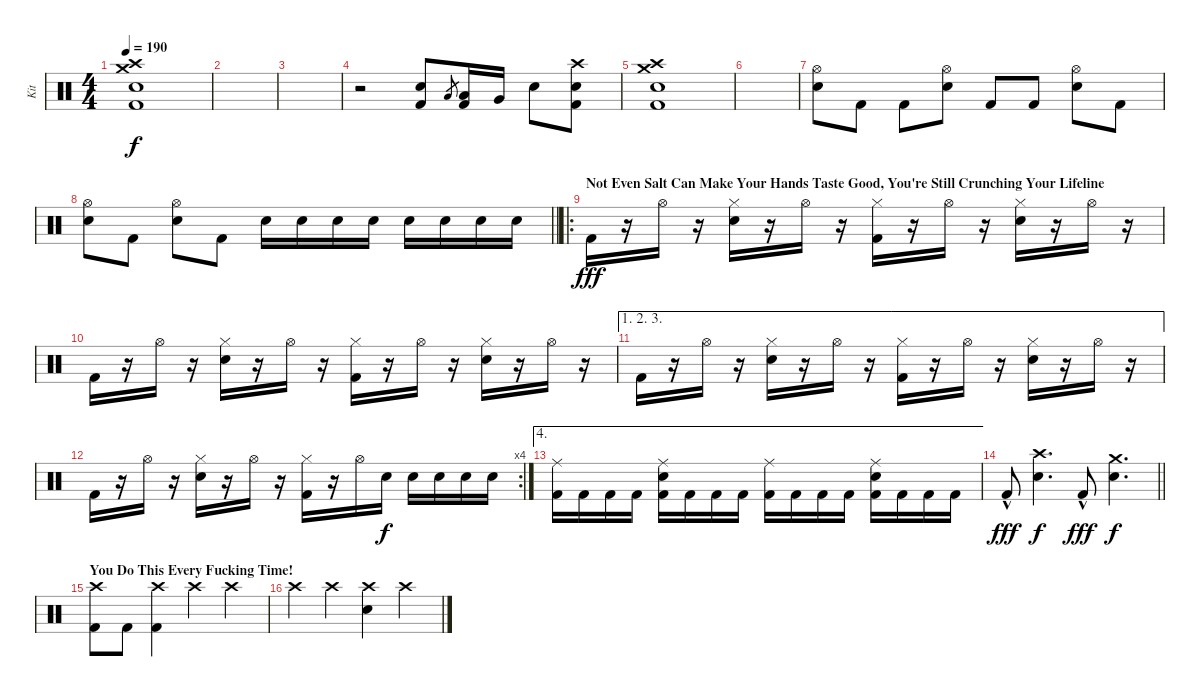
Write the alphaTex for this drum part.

\track ("Kit" "Kit") {instrument percussion}
\staff {score}
\articulation defaults
\ts (4 4)
\tempo 190
\clef neutral
\ks c
("Crash high (hit)" "Crash medium (hit)" "Electric Snare (hit)" "Kick (hit) 2").1{dy f} |
|
|
r.2 ("Electric Snare (hit)" "Kick (hit) 2").8 "Low Tom (hit)".8{gr} ("Low Tom (hit)" "Kick (hit) 2").16 "Very Low Tom (hit)".16 "Electric Snare (hit)".8 ("Crash high (hit)" "Electric Snare (hit)" "Kick (hit) 2").8 |
("Crash high (hit)" "Crash medium (hit)" "Electric Snare (hit)" "Kick (hit) 2").1 |
|
("Hi-Hat (open)" "Electric Snare (hit)").8 "Kick (hit) 2".8 "Kick (hit) 2".8 ("Hi-Hat (open)" "Electric Snare (hit)").8 "Kick (hit) 2".8 "Kick (hit) 2".8 ("Hi-Hat (open)" "Electric Snare (hit)").8 "Kick (hit) 2".8 |
\barLineRight lightlight
("Hi-Hat (open)" "Electric Snare (hit)").8 "Kick (hit) 2".8 ("Hi-Hat (open)" "Electric Snare (hit)").8 "Kick (hit) 2".8 "Electric Snare (hit)".16 "Electric Snare (hit)".16 "Electric Snare (hit)".16 "Electric Snare (hit)".16 "Electric Snare (hit)".16 "Electric Snare (hit)".16 "Electric Snare (hit)".16 "Electric Snare (hit)".16 |
\ro
\section ("" "Not Even Salt Can Make Your Hands Taste Good, You're Still Crunching Your Lifeline")
"Kick (hit) 2".16{dy fff} r.16 "Hi-Hat (open)".16 r.16 ("Hi-Hat (closed)" "Electric Snare (hit)").16 r.16 "Hi-Hat (open)".16 r.16 ("Hi-Hat (closed)" "Kick (hit) 2").16 r.16 "Hi-Hat (open)".16 r.16 ("Hi-Hat (closed)" "Electric Snare (hit)").16 r.16 "Hi-Hat (open)".16 r.16 |
"Kick (hit) 2".16 r.16 "Hi-Hat (open)".16 r.16 ("Hi-Hat (closed)" "Electric Snare (hit)").16 r.16 "Hi-Hat (open)".16 r.16 ("Hi-Hat (closed)" "Kick (hit) 2").16 r.16 "Hi-Hat (open)".16 r.16 ("Hi-Hat (closed)" "Electric Snare (hit)").16 r.16 "Hi-Hat (open)".16 r.16 |
\ae (1 2 3)
"Kick (hit) 2".16 r.16 "Hi-Hat (open)".16 r.16 ("Hi-Hat (closed)" "Electric Snare (hit)").16 r.16 "Hi-Hat (open)".16 r.16 ("Hi-Hat (closed)" "Kick (hit) 2").16 r.16 "Hi-Hat (open)".16 r.16 ("Hi-Hat (closed)" "Electric Snare (hit)").16 r.16 "Hi-Hat (open)".16 r.16 |
\rc 4 "Kick (hit) 2".16
r.16 "Hi-Hat (open)".16 r.16 ("Hi-Hat (closed)" "Electric Snare (hit)").16 r.16 "Hi-Hat (open)".16 r.16 ("Hi-Hat (closed)" "Kick (hit) 2").16 r.16 "Hi-Hat (open)".16 "Electric Snare (hit)".16{dy f} "Electric Snare (hit)".16 "Electric Snare (hit)".16 "Electric Snare (hit)".16 "Electric Snare (hit)".16 |
\ae 4
("Ride (middle)" "Kick (hit) 2").16 "Kick (hit) 2".16 "Kick (hit) 2".16 "Kick (hit) 2".16 ("Ride (middle)" "Electric Snare (hit)" "Kick (hit) 2").16 "Kick (hit) 2".16 "Kick (hit) 2".16 "Kick (hit) 2".16 ("Ride (middle)" "Kick (hit) 2").16 "Kick (hit) 2".16 "Kick (hit) 2".16 "Kick (hit) 2".16 ("Ride (middle)" "Electric Snare (hit)" "Kick (hit) 2").16 "Kick (hit) 2".16 "Kick (hit) 2".16 "Kick (hit) 2".16 |
\barLineRight lightlight "Kick (hit) 2"{hac}.8{dy fff}
("Crash high (hit)" "Electric Snare (hit)").4{d dy f} "Kick (hit) 2"{hac}.8{dy fff} ("Crash medium (hit)" "Electric Snare (hit)").4{d dy f} |
\section ("" "You Do This Every Fucking Time!")
("Crash high (hit)" "Kick (hit) 2").8 "Kick (hit) 2".8 ("Crash high (hit)" "Kick (hit) 2").4 "Crash high (hit)".4 "Crash high (hit)".4 |
"Crash high (hit)".4 "Crash high (hit)".4 ("Crash high (hit)" "Electric Snare (hit)").4 "Crash high (hit)".4
